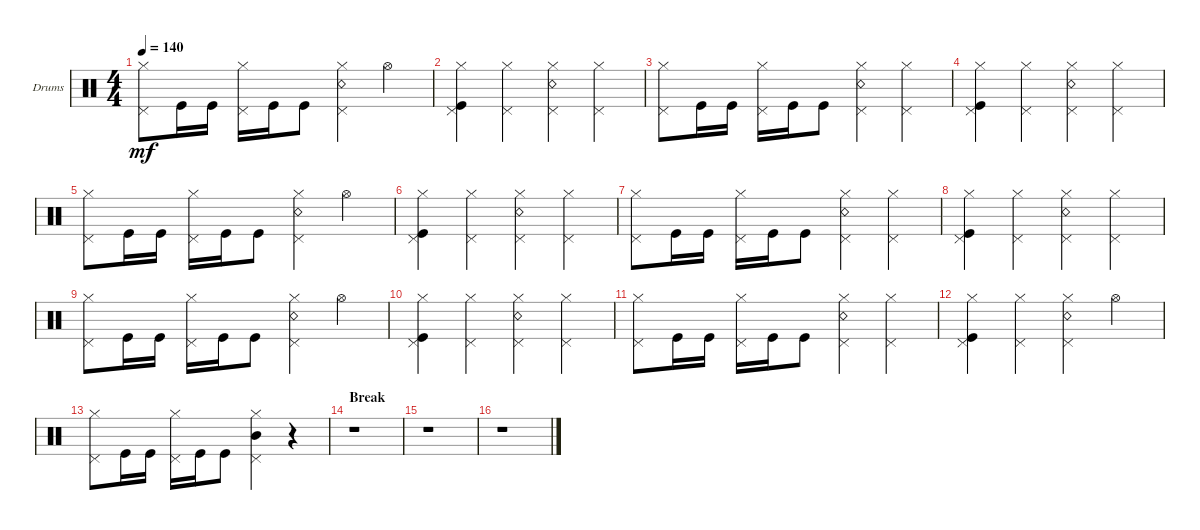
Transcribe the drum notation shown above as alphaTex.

\bracketExtendMode groupsimilarinstruments
\firstSystemTrackNameOrientation horizontal
\otherSystemsTrackNameOrientation horizontal
\track ("Drumkit" "Drums") {instrument percussion}
\staff {score}
\articulation defaults
\ts (4 4)
\tempo 140
\clef neutral
\ks c
("Hi-Hat (closed)" "Pedal Hi-Hat (hit)").8{dy mf} "Kick (hit)".16 "Kick (hit)".16 ("Hi-Hat (closed)" "Pedal Hi-Hat (hit)").16 "Kick (hit)".16 "Kick (hit)".8 ("Snare (rim shot)" "Hi-Hat (closed)" "Pedal Hi-Hat (hit)").4 "Hi-Hat (open)".4 |
("Kick (hit)" "Hi-Hat (closed)" "Pedal Hi-Hat (hit)").4 ("Hi-Hat (closed)" "Pedal Hi-Hat (hit)").4 ("Hi-Hat (closed)" "Snare (rim shot)" "Pedal Hi-Hat (hit)").4 ("Hi-Hat (closed)" "Pedal Hi-Hat (hit)").4 |
("Hi-Hat (closed)" "Pedal Hi-Hat (hit)").8 "Kick (hit)".16 "Kick (hit)".16 ("Hi-Hat (closed)" "Pedal Hi-Hat (hit)").16 "Kick (hit)".16 "Kick (hit)".8 ("Snare (rim shot)" "Hi-Hat (closed)" "Pedal Hi-Hat (hit)").4 ("Hi-Hat (closed)" "Pedal Hi-Hat (hit)").4 |
("Kick (hit)" "Hi-Hat (closed)" "Pedal Hi-Hat (hit)").4 ("Hi-Hat (closed)" "Pedal Hi-Hat (hit)").4 ("Hi-Hat (closed)" "Snare (rim shot)" "Pedal Hi-Hat (hit)").4 ("Hi-Hat (closed)" "Pedal Hi-Hat (hit)").4 |
("Hi-Hat (closed)" "Pedal Hi-Hat (hit)").8 "Kick (hit)".16 "Kick (hit)".16 ("Hi-Hat (closed)" "Pedal Hi-Hat (hit)").16 "Kick (hit)".16 "Kick (hit)".8 ("Snare (rim shot)" "Hi-Hat (closed)" "Pedal Hi-Hat (hit)").4 "Hi-Hat (open)".4 |
("Kick (hit)" "Hi-Hat (closed)" "Pedal Hi-Hat (hit)").4 ("Hi-Hat (closed)" "Pedal Hi-Hat (hit)").4 ("Hi-Hat (closed)" "Snare (rim shot)" "Pedal Hi-Hat (hit)").4 ("Hi-Hat (closed)" "Pedal Hi-Hat (hit)").4 |
("Hi-Hat (closed)" "Pedal Hi-Hat (hit)").8 "Kick (hit)".16 "Kick (hit)".16 ("Hi-Hat (closed)" "Pedal Hi-Hat (hit)").16 "Kick (hit)".16 "Kick (hit)".8 ("Snare (rim shot)" "Hi-Hat (closed)" "Pedal Hi-Hat (hit)").4 ("Hi-Hat (closed)" "Pedal Hi-Hat (hit)").4 |
("Kick (hit)" "Hi-Hat (closed)" "Pedal Hi-Hat (hit)").4 ("Hi-Hat (closed)" "Pedal Hi-Hat (hit)").4 ("Hi-Hat (closed)" "Snare (rim shot)" "Pedal Hi-Hat (hit)").4 ("Hi-Hat (closed)" "Pedal Hi-Hat (hit)").4 |
("Hi-Hat (closed)" "Pedal Hi-Hat (hit)").8 "Kick (hit)".16 "Kick (hit)".16 ("Hi-Hat (closed)" "Pedal Hi-Hat (hit)").16 "Kick (hit)".16 "Kick (hit)".8 ("Snare (rim shot)" "Hi-Hat (closed)" "Pedal Hi-Hat (hit)").4 "Hi-Hat (open)".4 |
("Kick (hit)" "Hi-Hat (closed)" "Pedal Hi-Hat (hit)").4 ("Hi-Hat (closed)" "Pedal Hi-Hat (hit)").4 ("Hi-Hat (closed)" "Snare (rim shot)" "Pedal Hi-Hat (hit)").4 ("Hi-Hat (closed)" "Pedal Hi-Hat (hit)").4 |
("Hi-Hat (closed)" "Pedal Hi-Hat (hit)").8 "Kick (hit)".16 "Kick (hit)".16 ("Hi-Hat (closed)" "Pedal Hi-Hat (hit)").16 "Kick (hit)".16 "Kick (hit)".8 ("Snare (rim shot)" "Hi-Hat (closed)" "Pedal Hi-Hat (hit)").4 ("Hi-Hat (closed)" "Pedal Hi-Hat (hit)").4 |
("Kick (hit)" "Hi-Hat (closed)" "Pedal Hi-Hat (hit)").4 ("Hi-Hat (closed)" "Pedal Hi-Hat (hit)").4 ("Hi-Hat (closed)" "Snare (rim shot)" "Pedal Hi-Hat (hit)").4 "Hi-Hat (open)".4 |
("Hi-Hat (closed)" "Pedal Hi-Hat (hit)").8 "Kick (hit)".16 "Kick (hit)".16 ("Hi-Hat (closed)" "Pedal Hi-Hat (hit)").16 "Kick (hit)".16 "Kick (hit)".8 ("Hi-Hat (closed)" "Pedal Hi-Hat (hit)" "Mid Tom (hit)").4 r.4 |
\section ("" "Break")
r.1 |
r.1 |
r.1
